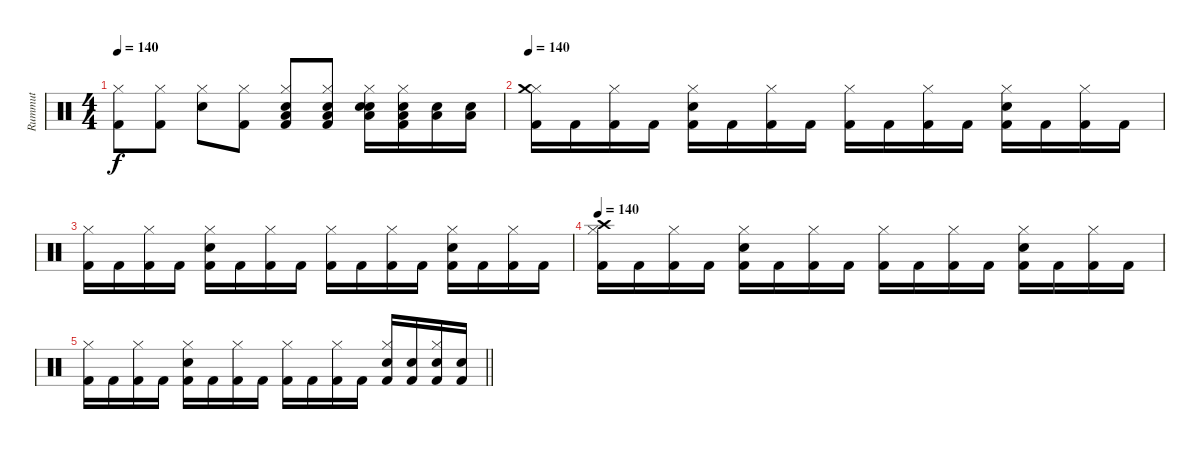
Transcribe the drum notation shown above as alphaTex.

\track ("Rummut" "Rummut") {instrument percussion}
\staff {score}
\articulation defaults
\ts (4 4)
\tempo 140
\clef neutral
\ks c
("Kick (hit) 2" "Hi-Hat (closed)").8{dy f} ("Kick (hit) 2" "Hi-Hat (closed)").8 ("Snare (hit) 2" "Hi-Hat (closed)").8 ("Kick (hit) 2" "Hi-Hat (closed)").8 ("Kick (hit) 2" "Hi-Hat (closed)" "Low Floor Tom (hit)" "Snare (hit) 2").8 ("Kick (hit) 2" "Hi-Hat (closed)" "Low Floor Tom (hit)" "Snare (hit) 2").8 ("Snare (hit) 2" "Hi-Hat (closed)" "Low Floor Tom (hit)" "Snare (hit) 2").16 ("Kick (hit) 2" "Hi-Hat (closed)" "Low Floor Tom (hit)" "Snare (hit) 2").16 ("Low Floor Tom (hit)" "Snare (hit) 2").16 ("Low Floor Tom (hit)" "Snare (hit) 2").16 |
\tempo 140
("Kick (hit) 2" "Hi-Hat (closed)" "Crash medium (hit)").16 "Kick (hit) 2".16 ("Kick (hit) 2" "Hi-Hat (closed)").16 "Kick (hit) 2".16 ("Kick (hit) 2" "Snare (hit) 2" "Hi-Hat (closed)").16 "Kick (hit) 2".16 ("Kick (hit) 2" "Hi-Hat (closed)").16 "Kick (hit) 2".16 ("Kick (hit) 2" "Hi-Hat (closed)").16 "Kick (hit) 2".16 ("Kick (hit) 2" "Hi-Hat (closed)").16 "Kick (hit) 2".16 ("Kick (hit) 2" "Snare (hit) 2" "Hi-Hat (closed)").16 "Kick (hit) 2".16 ("Kick (hit) 2" "Hi-Hat (closed)").16 "Kick (hit) 2".16 |
("Kick (hit) 2" "Hi-Hat (closed)").16 "Kick (hit) 2".16 ("Kick (hit) 2" "Hi-Hat (closed)").16 "Kick (hit) 2".16 ("Kick (hit) 2" "Snare (hit) 2" "Hi-Hat (closed)").16 "Kick (hit) 2".16 ("Kick (hit) 2" "Hi-Hat (closed)").16 "Kick (hit) 2".16 ("Kick (hit) 2" "Hi-Hat (closed)").16 "Kick (hit) 2".16 ("Kick (hit) 2" "Hi-Hat (closed)").16 "Kick (hit) 2".16 ("Kick (hit) 2" "Snare (hit) 2" "Hi-Hat (closed)").16 "Kick (hit) 2".16 ("Kick (hit) 2" "Hi-Hat (closed)").16 "Kick (hit) 2".16 |
\tempo 140
("Kick (hit) 2" "Hi-Hat (closed)" "Crash high (hit)").16 "Kick (hit) 2".16 ("Kick (hit) 2" "Hi-Hat (closed)").16 "Kick (hit) 2".16 ("Kick (hit) 2" "Snare (hit) 2" "Hi-Hat (closed)").16 "Kick (hit) 2".16 ("Kick (hit) 2" "Hi-Hat (closed)").16 "Kick (hit) 2".16 ("Kick (hit) 2" "Hi-Hat (closed)").16 "Kick (hit) 2".16 ("Kick (hit) 2" "Hi-Hat (closed)").16 "Kick (hit) 2".16 ("Kick (hit) 2" "Snare (hit) 2" "Hi-Hat (closed)").16 "Kick (hit) 2".16 ("Kick (hit) 2" "Hi-Hat (closed)").16 "Kick (hit) 2".16 |
\barLineRight lightlight
("Kick (hit) 2" "Hi-Hat (closed)").16 "Kick (hit) 2".16 ("Kick (hit) 2" "Hi-Hat (closed)").16 "Kick (hit) 2".16 ("Kick (hit) 2" "Snare (hit) 2" "Hi-Hat (closed)").16 "Kick (hit) 2".16 ("Kick (hit) 2" "Hi-Hat (closed)").16 "Kick (hit) 2".16 ("Kick (hit) 2" "Hi-Hat (closed)").16 "Kick (hit) 2".16 ("Kick (hit) 2" "Hi-Hat (closed)").16 "Kick (hit) 2".16 ("Kick (hit) 2" "Snare (hit) 2" "Hi-Hat (closed)").16 ("Kick (hit) 2" "Snare (hit) 2").16 ("Kick (hit) 2" "Snare (hit) 2" "Hi-Hat (closed)").16 ("Kick (hit) 2" "Snare (hit) 2").16
